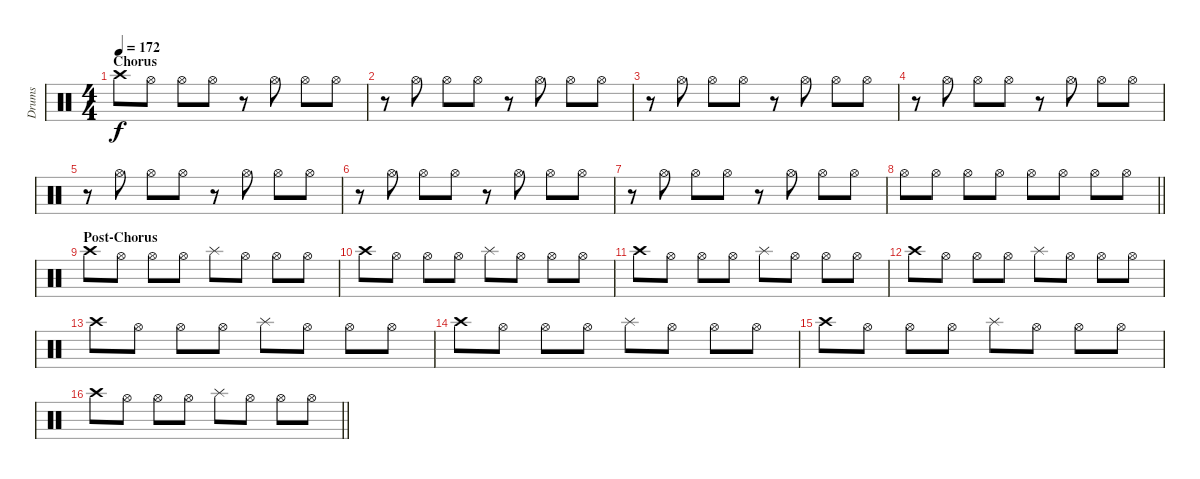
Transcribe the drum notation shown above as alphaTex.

\track ("Drums" "Drums") {instrument percussion}
\staff {score}
\articulation defaults
\ts (4 4)
\section ("" "Chorus")
\tempo 172
\clef neutral
\ks c "Crash high (hit)".8{dy f} "Hi-Hat (open)".8 "Hi-Hat (open)".8 "Hi-Hat (open)".8
r.8 "Hi-Hat (open)".8 "Hi-Hat (open)".8 "Hi-Hat (open)".8 |
r.8 "Hi-Hat (open)".8 "Hi-Hat (open)".8 "Hi-Hat (open)".8 r.8 "Hi-Hat (open)".8 "Hi-Hat (open)".8 "Hi-Hat (open)".8 |
r.8 "Hi-Hat (open)".8 "Hi-Hat (open)".8 "Hi-Hat (open)".8 r.8 "Hi-Hat (open)".8 "Hi-Hat (open)".8 "Hi-Hat (open)".8 |
r.8 "Hi-Hat (open)".8 "Hi-Hat (open)".8 "Hi-Hat (open)".8 r.8 "Hi-Hat (open)".8 "Hi-Hat (open)".8 "Hi-Hat (open)".8 |
r.8 "Hi-Hat (open)".8 "Hi-Hat (open)".8 "Hi-Hat (open)".8 r.8 "Hi-Hat (open)".8 "Hi-Hat (open)".8 "Hi-Hat (open)".8 |
r.8 "Hi-Hat (open)".8 "Hi-Hat (open)".8 "Hi-Hat (open)".8 r.8 "Hi-Hat (open)".8 "Hi-Hat (open)".8 "Hi-Hat (open)".8 |
r.8 "Hi-Hat (open)".8 "Hi-Hat (open)".8 "Hi-Hat (open)".8 r.8 "Hi-Hat (open)".8 "Hi-Hat (open)".8 "Hi-Hat (open)".8 |
\barLineRight lightlight "Hi-Hat (open)".8 "Hi-Hat (open)".8 "Hi-Hat (open)".8 "Hi-Hat (open)".8 "Hi-Hat (open)".8 "Hi-Hat (open)".8 "Hi-Hat (open)".8 "Hi-Hat (open)".8
|
\section ("" "Post-Chorus")
"Crash high (hit)".8 "Hi-Hat (open)".8 "Hi-Hat (open)".8 "Hi-Hat (open)".8 "Splash (hit)".8 "Hi-Hat (open)".8 "Hi-Hat (open)".8 "Hi-Hat (open)".8 |
"Crash high (hit)".8 "Hi-Hat (open)".8 "Hi-Hat (open)".8 "Hi-Hat (open)".8 "Splash (hit)".8 "Hi-Hat (open)".8 "Hi-Hat (open)".8 "Hi-Hat (open)".8 |
"Crash high (hit)".8 "Hi-Hat (open)".8 "Hi-Hat (open)".8 "Hi-Hat (open)".8 "Splash (hit)".8 "Hi-Hat (open)".8 "Hi-Hat (open)".8 "Hi-Hat (open)".8 |
"Crash high (hit)".8 "Hi-Hat (open)".8 "Hi-Hat (open)".8 "Hi-Hat (open)".8 "Splash (hit)".8 "Hi-Hat (open)".8 "Hi-Hat (open)".8 "Hi-Hat (open)".8 |
"Crash high (hit)".8 "Hi-Hat (open)".8 "Hi-Hat (open)".8 "Hi-Hat (open)".8 "Splash (hit)".8 "Hi-Hat (open)".8 "Hi-Hat (open)".8 "Hi-Hat (open)".8 |
"Crash high (hit)".8 "Hi-Hat (open)".8 "Hi-Hat (open)".8 "Hi-Hat (open)".8 "Splash (hit)".8 "Hi-Hat (open)".8 "Hi-Hat (open)".8 "Hi-Hat (open)".8 |
"Crash high (hit)".8 "Hi-Hat (open)".8 "Hi-Hat (open)".8 "Hi-Hat (open)".8 "Splash (hit)".8 "Hi-Hat (open)".8 "Hi-Hat (open)".8 "Hi-Hat (open)".8 |
\barLineRight lightlight "Crash high (hit)".8 "Hi-Hat (open)".8 "Hi-Hat (open)".8 "Hi-Hat (open)".8 "Splash (hit)".8 "Hi-Hat (open)".8 "Hi-Hat (open)".8 "Hi-Hat (open)".8
